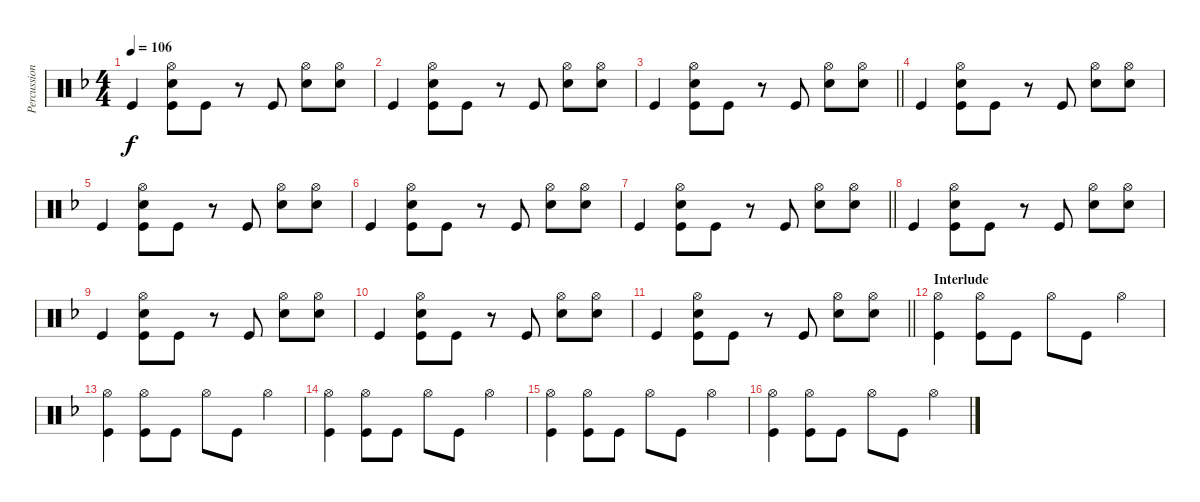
\track ("Percussion" "Percussion") {instrument percussion}
\staff {score}
\articulation defaults
\ts (4 4)
\tempo 106
\clef neutral
\ks dminor "Kick (hit)".4{dy f}
("Hand Clap (hit)" "Hi-Hat (open)" "Kick (hit)").8 "Kick (hit)".8 r.8 "Kick (hit)".8 ("Hand Clap (hit)" "Hi-Hat (open)").8 ("Hand Clap (hit)" "Hi-Hat (open)").8 |
"Kick (hit)".4 ("Hand Clap (hit)" "Hi-Hat (open)" "Kick (hit)").8 "Kick (hit)".8 r.8 "Kick (hit)".8 ("Hand Clap (hit)" "Hi-Hat (open)").8 ("Hand Clap (hit)" "Hi-Hat (open)").8 |
\barLineRight lightlight "Kick (hit)".4
("Hand Clap (hit)" "Hi-Hat (open)" "Kick (hit)").8 "Kick (hit)".8 r.8 "Kick (hit)".8 ("Hand Clap (hit)" "Hi-Hat (open)").8 ("Hand Clap (hit)" "Hi-Hat (open)").8 |
"Kick (hit)".4 ("Hand Clap (hit)" "Hi-Hat (open)" "Kick (hit)").8 "Kick (hit)".8 r.8 "Kick (hit)".8 ("Hand Clap (hit)" "Hi-Hat (open)").8 ("Hand Clap (hit)" "Hi-Hat (open)").8 |
"Kick (hit)".4 ("Hand Clap (hit)" "Hi-Hat (open)" "Kick (hit)").8 "Kick (hit)".8 r.8 "Kick (hit)".8 ("Hand Clap (hit)" "Hi-Hat (open)").8 ("Hand Clap (hit)" "Hi-Hat (open)").8 |
"Kick (hit)".4 ("Hand Clap (hit)" "Hi-Hat (open)" "Kick (hit)").8 "Kick (hit)".8 r.8 "Kick (hit)".8 ("Hand Clap (hit)" "Hi-Hat (open)").8 ("Hand Clap (hit)" "Hi-Hat (open)").8 |
\barLineRight lightlight "Kick (hit)".4
("Hand Clap (hit)" "Hi-Hat (open)" "Kick (hit)").8 "Kick (hit)".8 r.8 "Kick (hit)".8 ("Hand Clap (hit)" "Hi-Hat (open)").8 ("Hand Clap (hit)" "Hi-Hat (open)").8 |
"Kick (hit)".4 ("Hand Clap (hit)" "Hi-Hat (open)" "Kick (hit)").8 "Kick (hit)".8 r.8 "Kick (hit)".8 ("Hand Clap (hit)" "Hi-Hat (open)").8 ("Hand Clap (hit)" "Hi-Hat (open)").8 |
"Kick (hit)".4 ("Hand Clap (hit)" "Hi-Hat (open)" "Kick (hit)").8 "Kick (hit)".8 r.8 "Kick (hit)".8 ("Hand Clap (hit)" "Hi-Hat (open)").8 ("Hand Clap (hit)" "Hi-Hat (open)").8 |
"Kick (hit)".4 ("Hand Clap (hit)" "Hi-Hat (open)" "Kick (hit)").8 "Kick (hit)".8 r.8 "Kick (hit)".8 ("Hand Clap (hit)" "Hi-Hat (open)").8 ("Hand Clap (hit)" "Hi-Hat (open)").8 |
\barLineRight lightlight "Kick (hit)".4
("Hand Clap (hit)" "Hi-Hat (open)" "Kick (hit)").8 "Kick (hit)".8 r.8 "Kick (hit)".8 ("Hand Clap (hit)" "Hi-Hat (open)").8 ("Hand Clap (hit)" "Hi-Hat (open)").8 |
\section ("" "Interlude")
("Hi-Hat (open)" "Kick (hit)").4 ("Hi-Hat (open)" "Kick (hit)").8 "Kick (hit)".8 "Hi-Hat (open)".8 "Kick (hit)".8 "Hi-Hat (open)".4 |
("Hi-Hat (open)" "Kick (hit)").4 ("Hi-Hat (open)" "Kick (hit)").8 "Kick (hit)".8 "Hi-Hat (open)".8 "Kick (hit)".8 "Hi-Hat (open)".4 |
("Hi-Hat (open)" "Kick (hit)").4 ("Hi-Hat (open)" "Kick (hit)").8 "Kick (hit)".8 "Hi-Hat (open)".8 "Kick (hit)".8 "Hi-Hat (open)".4 |
("Hi-Hat (open)" "Kick (hit)").4 ("Hi-Hat (open)" "Kick (hit)").8 "Kick (hit)".8 "Hi-Hat (open)".8 "Kick (hit)".8 "Hi-Hat (open)".4 |
("Hi-Hat (open)" "Kick (hit)").4 ("Hi-Hat (open)" "Kick (hit)").8 "Kick (hit)".8 "Hi-Hat (open)".8 "Kick (hit)".8 "Hi-Hat (open)".4
